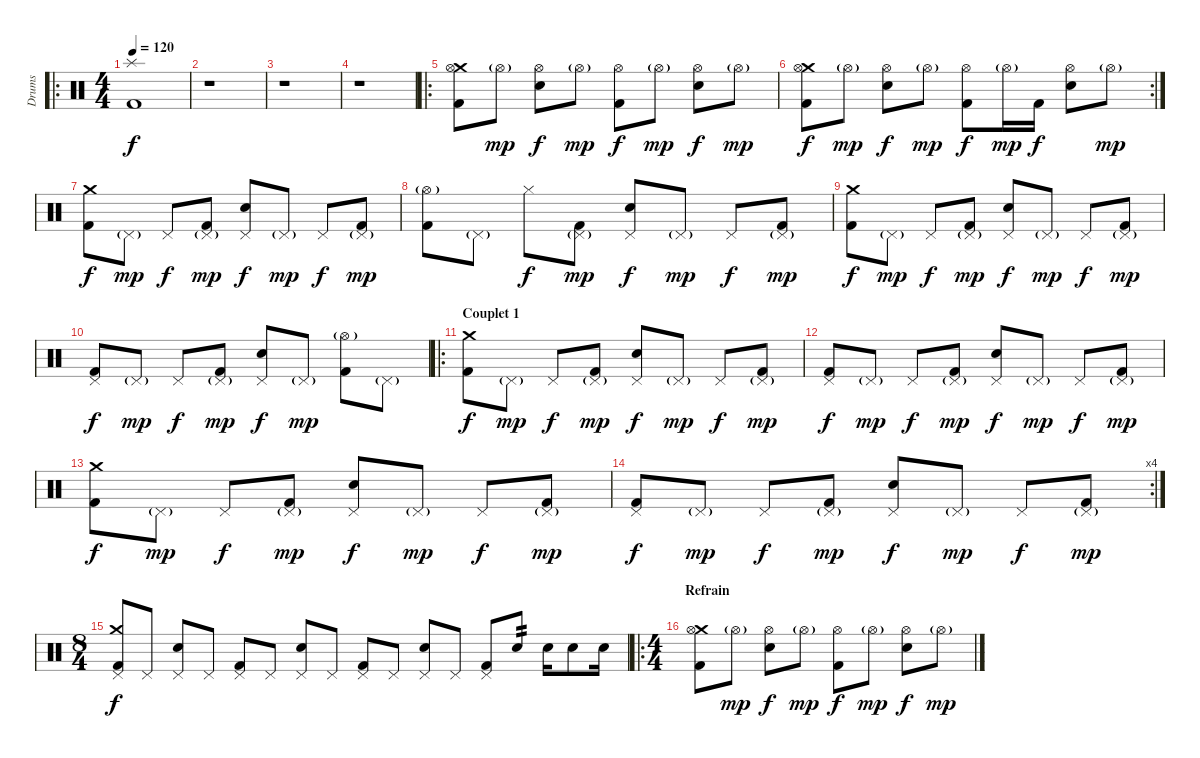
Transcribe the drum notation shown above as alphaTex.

\track ("Drums" "Drums") {instrument percussion}
\staff {score}
\articulation defaults
\ro
\ts (4 4)
\tempo 120
\clef neutral
\ks c
("Splash (hit)" "Kick (hit) 2").1{dy f} |
r.1 |
r.1 |
r.1 |
\ro
("Crash medium (hit)" "Hi-Hat (open)" "Kick (hit) 2").8 "Hi-Hat (open)"{g}.8{dy mp} ("Hi-Hat (open)" "Electric Snare (hit)").8{dy f} "Hi-Hat (open)"{g}.8{dy mp} ("Hi-Hat (open)" "Kick (hit) 2").8{dy f} "Hi-Hat (open)"{g}.8{dy mp} ("Hi-Hat (open)" "Electric Snare (hit)").8{dy f} "Hi-Hat (open)"{g}.8{dy mp} |
\rc 2
("Crash medium (hit)" "Hi-Hat (open)" "Kick (hit) 2").8{dy f} "Hi-Hat (open)"{g}.8{dy mp} ("Hi-Hat (open)" "Electric Snare (hit)").8{dy f} "Hi-Hat (open)"{g}.8{dy mp} ("Hi-Hat (open)" "Kick (hit) 2").8{dy f} "Hi-Hat (open)"{g}.16{dy mp} "Kick (hit) 2".16{dy f} ("Hi-Hat (open)" "Electric Snare (hit)").8 "Hi-Hat (open)"{g}.8{dy mp} |
("Crash medium (hit)" "Kick (hit) 2").8{dy f} "Pedal Hi-Hat (hit)"{g}.8{dy mp} "Pedal Hi-Hat (hit)".8{dy f} ("Pedal Hi-Hat (hit)"{g} "Kick (hit) 2").8{dy mp} ("Pedal Hi-Hat (hit)" "Electric Snare (hit)").8{dy f} "Pedal Hi-Hat (hit)"{g}.8{dy mp} "Pedal Hi-Hat (hit)".8{dy f} ("Pedal Hi-Hat (hit)"{g} "Kick (hit) 2").8{dy mp} |
("Hi-Hat (open)"{g} "Kick (hit) 2").8 "Pedal Hi-Hat (hit)"{g}.8 "Hi-Hat (closed)".8{dy f} ("Pedal Hi-Hat (hit)"{g} "Kick (hit) 2").8{dy mp} ("Pedal Hi-Hat (hit)" "Electric Snare (hit)").8{dy f} "Pedal Hi-Hat (hit)"{g}.8{dy mp} "Pedal Hi-Hat (hit)".8{dy f} ("Pedal Hi-Hat (hit)"{g} "Kick (hit) 2").8{dy mp} |
("Crash medium (hit)" "Kick (hit) 2").8{dy f} "Pedal Hi-Hat (hit)"{g}.8{dy mp} "Pedal Hi-Hat (hit)".8{dy f} ("Pedal Hi-Hat (hit)"{g} "Kick (hit) 2").8{dy mp} ("Pedal Hi-Hat (hit)" "Electric Snare (hit)").8{dy f} "Pedal Hi-Hat (hit)"{g}.8{dy mp} "Pedal Hi-Hat (hit)".8{dy f} ("Pedal Hi-Hat (hit)"{g} "Kick (hit) 2").8{dy mp} |
("Pedal Hi-Hat (hit)" "Kick (hit) 2").8{dy f} "Pedal Hi-Hat (hit)"{g}.8{dy mp} "Pedal Hi-Hat (hit)".8{dy f} ("Pedal Hi-Hat (hit)"{g} "Kick (hit) 2").8{dy mp} ("Pedal Hi-Hat (hit)" "Electric Snare (hit)").8{dy f} "Pedal Hi-Hat (hit)"{g}.8{dy mp} ("Hi-Hat (open)"{g} "Kick (hit) 2").8 "Pedal Hi-Hat (hit)"{g}.8 |
\ro
\section ("" "Couplet 1")
("Crash medium (hit)" "Kick (hit) 2").8{dy f} "Pedal Hi-Hat (hit)"{g}.8{dy mp} "Pedal Hi-Hat (hit)".8{dy f} ("Pedal Hi-Hat (hit)"{g} "Kick (hit) 2").8{dy mp} ("Pedal Hi-Hat (hit)" "Electric Snare (hit)").8{dy f} "Pedal Hi-Hat (hit)"{g}.8{dy mp} "Pedal Hi-Hat (hit)".8{dy f} ("Pedal Hi-Hat (hit)"{g} "Kick (hit) 2").8{dy mp} |
("Pedal Hi-Hat (hit)" "Kick (hit) 2").8{dy f} "Pedal Hi-Hat (hit)"{g}.8{dy mp} "Pedal Hi-Hat (hit)".8{dy f} ("Pedal Hi-Hat (hit)"{g} "Kick (hit) 2").8{dy mp} ("Pedal Hi-Hat (hit)" "Electric Snare (hit)").8{dy f} "Pedal Hi-Hat (hit)"{g}.8{dy mp} "Pedal Hi-Hat (hit)".8{dy f} ("Pedal Hi-Hat (hit)"{g} "Kick (hit) 2").8{dy mp} |
("Crash medium (hit)" "Kick (hit) 2").8{dy f} "Pedal Hi-Hat (hit)"{g}.8{dy mp} "Pedal Hi-Hat (hit)".8{dy f} ("Pedal Hi-Hat (hit)"{g} "Kick (hit) 2").8{dy mp} ("Pedal Hi-Hat (hit)" "Electric Snare (hit)").8{dy f} "Pedal Hi-Hat (hit)"{g}.8{dy mp} "Pedal Hi-Hat (hit)".8{dy f} ("Pedal Hi-Hat (hit)"{g} "Kick (hit) 2").8{dy mp} |
\rc 4
("Pedal Hi-Hat (hit)" "Kick (hit) 2").8{dy f} "Pedal Hi-Hat (hit)"{g}.8{dy mp} "Pedal Hi-Hat (hit)".8{dy f} ("Pedal Hi-Hat (hit)"{g} "Kick (hit) 2").8{dy mp} ("Pedal Hi-Hat (hit)" "Electric Snare (hit)").8{dy f} "Pedal Hi-Hat (hit)"{g}.8{dy mp} "Pedal Hi-Hat (hit)".8{dy f} ("Pedal Hi-Hat (hit)"{g} "Kick (hit) 2").8{dy mp} |
\ts (8 4)
("Crash medium (hit)" "Pedal Hi-Hat (hit)" "Kick (hit) 2").8{dy f} "Pedal Hi-Hat (hit)".8 ("Pedal Hi-Hat (hit)" "Electric Snare (hit)").8 "Pedal Hi-Hat (hit)".8 ("Pedal Hi-Hat (hit)" "Kick (hit) 2").8 "Pedal Hi-Hat (hit)".8 ("Pedal Hi-Hat (hit)" "Electric Snare (hit)").8 "Pedal Hi-Hat (hit)".8 ("Pedal Hi-Hat (hit)" "Kick (hit) 2").8 "Pedal Hi-Hat (hit)".8 ("Pedal Hi-Hat (hit)" "Electric Snare (hit)").8 "Pedal Hi-Hat (hit)".8 ("Pedal Hi-Hat (hit)" "Kick (hit) 2").8 "Electric Snare (hit)".8{tp 2} "Electric Snare (hit)".16 "Electric Snare (hit)".8 "Electric Snare (hit)".16 |
\ro
\ts (4 4)
\section ("" "Refrain")
("Crash medium (hit)" "Hi-Hat (open)" "Kick (hit) 2").8 "Hi-Hat (open)"{g}.8{dy mp} ("Hi-Hat (open)" "Electric Snare (hit)").8{dy f} "Hi-Hat (open)"{g}.8{dy mp} ("Hi-Hat (open)" "Kick (hit) 2").8{dy f} "Hi-Hat (open)"{g}.8{dy mp} ("Hi-Hat (open)" "Electric Snare (hit)").8{dy f} "Hi-Hat (open)"{g}.8{dy mp}
